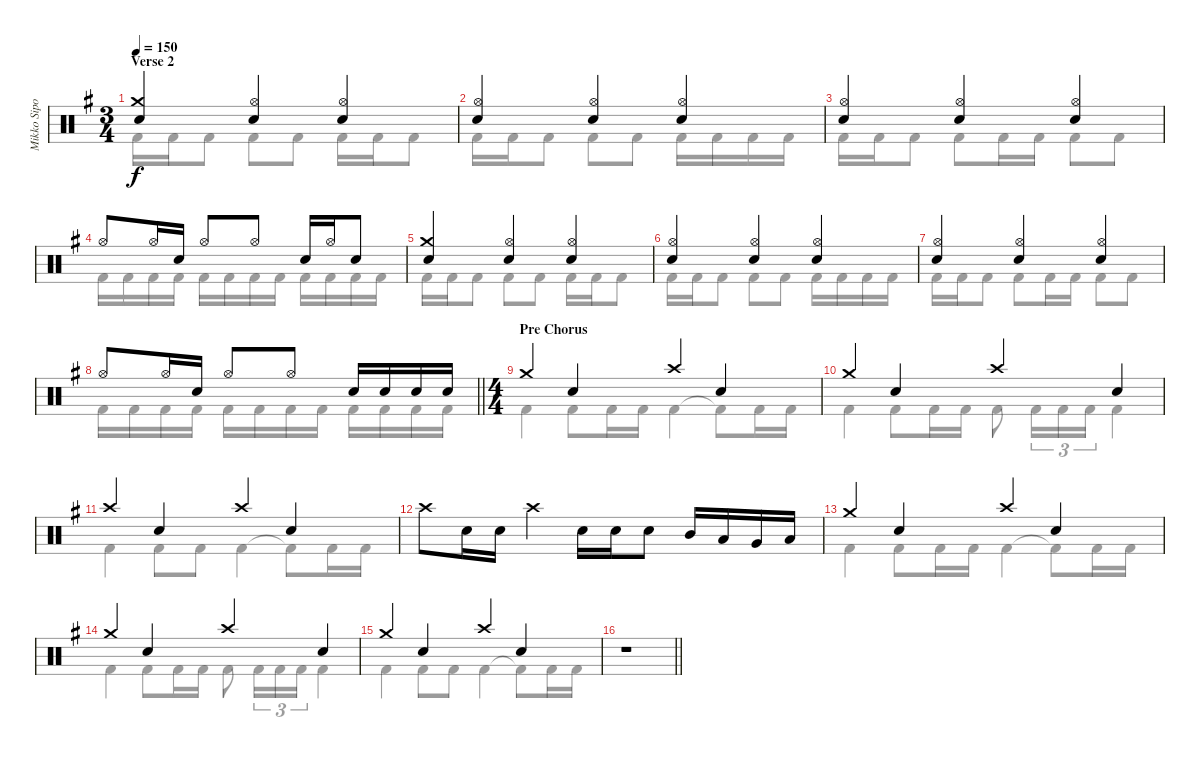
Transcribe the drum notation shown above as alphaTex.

\track ("Mikko Sipola (drums)" "Mikko Sipo") {instrument percussion}
\staff {score}
\articulation defaults
\voice
\ts (3 4)
\section ("" "Verse 2")
\tempo 150
\clef neutral
\ks eminor
("Crash medium (hit)" "Electric Snare (hit)").4{dy f} ("Hi-Hat (open)" "Electric Snare (hit)").4 ("Hi-Hat (open)" "Electric Snare (hit)").4 |
("Hi-Hat (open)" "Electric Snare (hit)").4 ("Hi-Hat (open)" "Electric Snare (hit)").4 ("Hi-Hat (open)" "Electric Snare (hit)").4 |
("Hi-Hat (open)" "Electric Snare (hit)").4 ("Hi-Hat (open)" "Electric Snare (hit)").4 ("Hi-Hat (open)" "Electric Snare (hit)").4 |
"Hi-Hat (open)".8 "Hi-Hat (open)".16 "Electric Snare (hit)".16 "Hi-Hat (open)".8 "Hi-Hat (open)".8 "Electric Snare (hit)".16 "Hi-Hat (open)".16 "Electric Snare (hit)".8 |
("Crash medium (hit)" "Electric Snare (hit)").4 ("Hi-Hat (open)" "Electric Snare (hit)").4 ("Hi-Hat (open)" "Electric Snare (hit)").4 |
("Hi-Hat (open)" "Electric Snare (hit)").4 ("Hi-Hat (open)" "Electric Snare (hit)").4 ("Hi-Hat (open)" "Electric Snare (hit)").4 |
("Hi-Hat (open)" "Electric Snare (hit)").4 ("Hi-Hat (open)" "Electric Snare (hit)").4 ("Hi-Hat (open)" "Electric Snare (hit)").4 |
\barLineRight lightlight "Hi-Hat (open)".8 "Hi-Hat (open)".16 "Electric Snare (hit)".16 "Hi-Hat (open)".8 "Hi-Hat (open)".8 "Electric Snare (hit)".16 "Electric Snare (hit)".16 "Electric Snare (hit)".16 "Electric Snare (hit)".16
|
\ts (4 4)
\section ("" "Pre Chorus")
"Crash medium (hit)".4 "Electric Snare (hit)".4 "Crash high (hit)".4 "Electric Snare (hit)".4 |
"Crash medium (hit)".4 "Electric Snare (hit)".4 "Crash high (hit)".4 "Electric Snare (hit)".4 |
"Crash high (hit)".4 "Electric Snare (hit)".4 "Crash high (hit)".4 "Electric Snare (hit)".4 |
"Crash high (hit)".8 "Electric Snare (hit)".16 "Electric Snare (hit)".16 "Crash high (hit)".4 "Electric Snare (hit)".16 "Electric Snare (hit)".16 "Electric Snare (hit)".8 "Mid Tom (hit)".16 "Low Tom (hit)".16 "Very Low Tom (hit)".16 "Low Floor Tom (hit)".16 |
"Crash medium (hit)".4 "Electric Snare (hit)".4 "Crash high (hit)".4 "Electric Snare (hit)".4 |
"Crash medium (hit)".4 "Electric Snare (hit)".4 "Crash high (hit)".4 "Electric Snare (hit)".4 |
"Crash medium (hit)".4 "Electric Snare (hit)".4 "Crash high (hit)".4 "Electric Snare (hit)".4 |
\barLineRight lightlight
r.1
\voice
\clef neutral
\ottava regular
\simile none
\ks eminor "Kick (hit) 2".16{dy f} "Kick (hit) 2".16 "Kick (hit) 2".8 "Kick (hit) 2".8 "Kick (hit) 2".8 "Kick (hit) 2".16 "Kick (hit) 2".16 "Kick (hit) 2".8
|
"Kick (hit) 2".16 "Kick (hit) 2".16 "Kick (hit) 2".8 "Kick (hit) 2".8 "Kick (hit) 2".8 "Kick (hit) 2".16 "Kick (hit) 2".16 "Kick (hit) 2".16 "Kick (hit) 2".16 |
"Kick (hit) 2".16 "Kick (hit) 2".16 "Kick (hit) 2".8 "Kick (hit) 2".8 "Kick (hit) 2".16 "Kick (hit) 2".16 "Kick (hit) 2".8 "Kick (hit) 2".8 |
"Kick (hit) 2".16 "Kick (hit) 2".16 "Kick (hit) 2".16 "Kick (hit) 2".16 "Kick (hit) 2".16 "Kick (hit) 2".16 "Kick (hit) 2".16 "Kick (hit) 2".16 "Kick (hit) 2".16 "Kick (hit) 2".16 "Kick (hit) 2".16 "Kick (hit) 2".16 |
"Kick (hit) 2".16 "Kick (hit) 2".16 "Kick (hit) 2".8 "Kick (hit) 2".8 "Kick (hit) 2".8 "Kick (hit) 2".16 "Kick (hit) 2".16 "Kick (hit) 2".8 |
"Kick (hit) 2".16 "Kick (hit) 2".16 "Kick (hit) 2".8 "Kick (hit) 2".8 "Kick (hit) 2".8 "Kick (hit) 2".16 "Kick (hit) 2".16 "Kick (hit) 2".16 "Kick (hit) 2".16 |
"Kick (hit) 2".16 "Kick (hit) 2".16 "Kick (hit) 2".8 "Kick (hit) 2".8 "Kick (hit) 2".16 "Kick (hit) 2".16 "Kick (hit) 2".8 "Kick (hit) 2".8 |
\barLineRight lightlight "Kick (hit) 2".16 "Kick (hit) 2".16 "Kick (hit) 2".16 "Kick (hit) 2".16 "Kick (hit) 2".16 "Kick (hit) 2".16 "Kick (hit) 2".16 "Kick (hit) 2".16 "Kick (hit) 2".16 "Kick (hit) 2".16 "Kick (hit) 2".16 "Kick (hit) 2".16
|
"Kick (hit) 2".4 "Kick (hit) 2".8 "Kick (hit) 2".16 "Kick (hit) 2".16 "Kick (hit) 2".4 "Kick (hit) 2"{t}.8 "Kick (hit) 2".16 "Kick (hit) 2".16 |
"Kick (hit) 2".4 "Kick (hit) 2".8 "Kick (hit) 2".16 "Kick (hit) 2".16 "Kick (hit) 2".8 "Kick (hit) 2".16{tu (3 2)} "Kick (hit) 2".16{tu (3 2)} "Kick (hit) 2".16{tu (3 2)} "Kick (hit) 2".4 |
"Kick (hit) 2".4 "Kick (hit) 2".8 "Kick (hit) 2".8 "Kick (hit) 2".4 "Kick (hit) 2"{t}.8 "Kick (hit) 2".16 "Kick (hit) 2".16 |
|
"Kick (hit) 2".4 "Kick (hit) 2".8 "Kick (hit) 2".16 "Kick (hit) 2".16 "Kick (hit) 2".4 "Kick (hit) 2"{t}.8 "Kick (hit) 2".16 "Kick (hit) 2".16 |
"Kick (hit) 2".4 "Kick (hit) 2".8 "Kick (hit) 2".16 "Kick (hit) 2".16 "Kick (hit) 2".8 "Kick (hit) 2".16{tu (3 2)} "Kick (hit) 2".16{tu (3 2)} "Kick (hit) 2".16{tu (3 2)} "Kick (hit) 2".4 |
"Kick (hit) 2".4 "Kick (hit) 2".8 "Kick (hit) 2".8 "Kick (hit) 2".4 "Kick (hit) 2"{t}.8 "Kick (hit) 2".16 "Kick (hit) 2".16 |
\barLineRight lightlight
